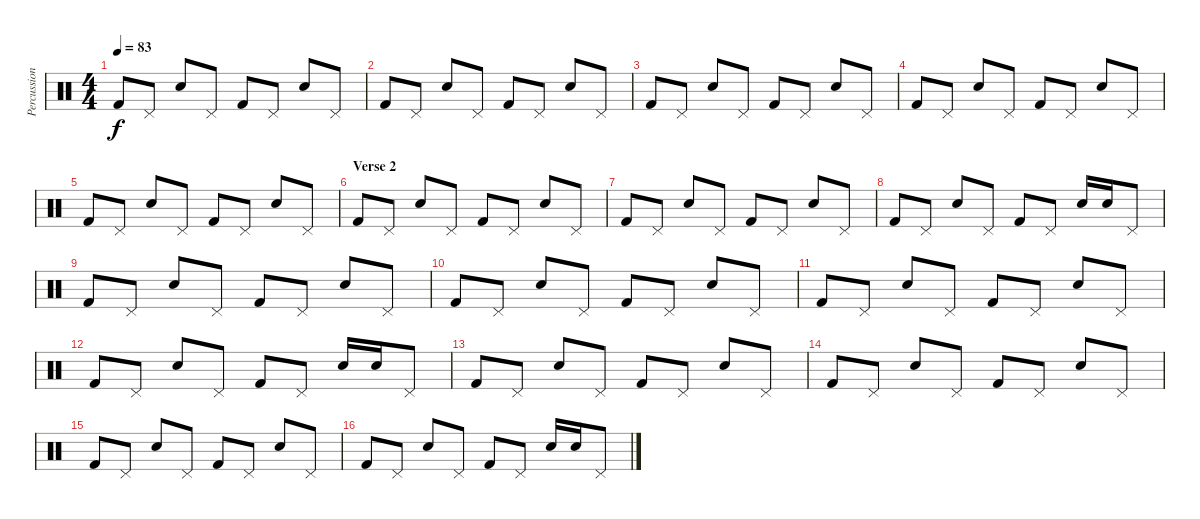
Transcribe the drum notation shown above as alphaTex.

\track ("Percussion" "Percussion") {instrument percussion}
\staff {score}
\articulation defaults
\ts (4 4)
\tempo 83
\clef neutral
\ks c "Kick (hit) 2".8{dy f} "Pedal Hi-Hat (hit)".8 "Electric Snare (hit)".8 "Pedal Hi-Hat (hit)".8 "Kick (hit) 2".8 "Pedal Hi-Hat (hit)".8 "Electric Snare (hit)".8 "Pedal Hi-Hat (hit)".8
|
"Kick (hit) 2".8 "Pedal Hi-Hat (hit)".8 "Electric Snare (hit)".8 "Pedal Hi-Hat (hit)".8 "Kick (hit) 2".8 "Pedal Hi-Hat (hit)".8 "Electric Snare (hit)".8 "Pedal Hi-Hat (hit)".8 |
"Kick (hit) 2".8 "Pedal Hi-Hat (hit)".8 "Electric Snare (hit)".8 "Pedal Hi-Hat (hit)".8 "Kick (hit) 2".8 "Pedal Hi-Hat (hit)".8 "Electric Snare (hit)".8 "Pedal Hi-Hat (hit)".8 |
"Kick (hit) 2".8 "Pedal Hi-Hat (hit)".8 "Electric Snare (hit)".8 "Pedal Hi-Hat (hit)".8 "Kick (hit) 2".8 "Pedal Hi-Hat (hit)".8 "Electric Snare (hit)".8 "Pedal Hi-Hat (hit)".8 |
"Kick (hit) 2".8 "Pedal Hi-Hat (hit)".8 "Electric Snare (hit)".8 "Pedal Hi-Hat (hit)".8 "Kick (hit) 2".8 "Pedal Hi-Hat (hit)".8 "Electric Snare (hit)".8 "Pedal Hi-Hat (hit)".8 |
\section ("" "Verse 2")
"Kick (hit) 2".8 "Pedal Hi-Hat (hit)".8 "Electric Snare (hit)".8 "Pedal Hi-Hat (hit)".8 "Kick (hit) 2".8 "Pedal Hi-Hat (hit)".8 "Electric Snare (hit)".8 "Pedal Hi-Hat (hit)".8 |
"Kick (hit) 2".8 "Pedal Hi-Hat (hit)".8 "Electric Snare (hit)".8 "Pedal Hi-Hat (hit)".8 "Kick (hit) 2".8 "Pedal Hi-Hat (hit)".8 "Electric Snare (hit)".8 "Pedal Hi-Hat (hit)".8 |
"Kick (hit) 2".8 "Pedal Hi-Hat (hit)".8 "Electric Snare (hit)".8 "Pedal Hi-Hat (hit)".8 "Kick (hit) 2".8 "Pedal Hi-Hat (hit)".8 "Electric Snare (hit)".16 "Electric Snare (hit)".16 "Pedal Hi-Hat (hit)".8 |
"Kick (hit) 2".8 "Pedal Hi-Hat (hit)".8 "Electric Snare (hit)".8 "Pedal Hi-Hat (hit)".8 "Kick (hit) 2".8 "Pedal Hi-Hat (hit)".8 "Electric Snare (hit)".8 "Pedal Hi-Hat (hit)".8 |
"Kick (hit) 2".8 "Pedal Hi-Hat (hit)".8 "Electric Snare (hit)".8 "Pedal Hi-Hat (hit)".8 "Kick (hit) 2".8 "Pedal Hi-Hat (hit)".8 "Electric Snare (hit)".8 "Pedal Hi-Hat (hit)".8 |
"Kick (hit) 2".8 "Pedal Hi-Hat (hit)".8 "Electric Snare (hit)".8 "Pedal Hi-Hat (hit)".8 "Kick (hit) 2".8 "Pedal Hi-Hat (hit)".8 "Electric Snare (hit)".8 "Pedal Hi-Hat (hit)".8 |
"Kick (hit) 2".8 "Pedal Hi-Hat (hit)".8 "Electric Snare (hit)".8 "Pedal Hi-Hat (hit)".8 "Kick (hit) 2".8 "Pedal Hi-Hat (hit)".8 "Electric Snare (hit)".16 "Electric Snare (hit)".16 "Pedal Hi-Hat (hit)".8 |
"Kick (hit) 2".8 "Pedal Hi-Hat (hit)".8 "Electric Snare (hit)".8 "Pedal Hi-Hat (hit)".8 "Kick (hit) 2".8 "Pedal Hi-Hat (hit)".8 "Electric Snare (hit)".8 "Pedal Hi-Hat (hit)".8 |
"Kick (hit) 2".8 "Pedal Hi-Hat (hit)".8 "Electric Snare (hit)".8 "Pedal Hi-Hat (hit)".8 "Kick (hit) 2".8 "Pedal Hi-Hat (hit)".8 "Electric Snare (hit)".8 "Pedal Hi-Hat (hit)".8 |
"Kick (hit) 2".8 "Pedal Hi-Hat (hit)".8 "Electric Snare (hit)".8 "Pedal Hi-Hat (hit)".8 "Kick (hit) 2".8 "Pedal Hi-Hat (hit)".8 "Electric Snare (hit)".8 "Pedal Hi-Hat (hit)".8 |
"Kick (hit) 2".8 "Pedal Hi-Hat (hit)".8 "Electric Snare (hit)".8 "Pedal Hi-Hat (hit)".8 "Kick (hit) 2".8 "Pedal Hi-Hat (hit)".8 "Electric Snare (hit)".16 "Electric Snare (hit)".16 "Pedal Hi-Hat (hit)".8
